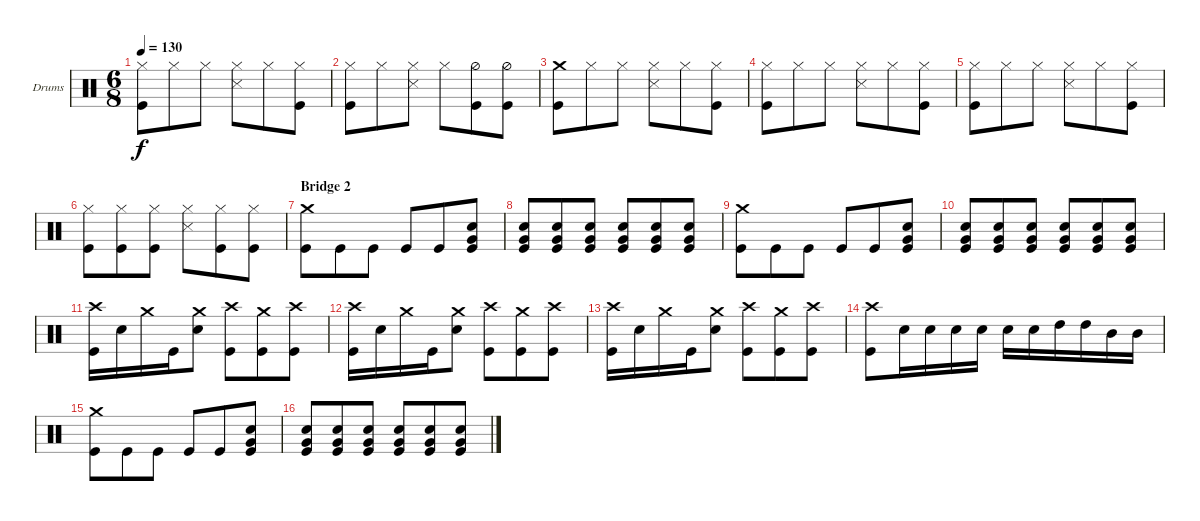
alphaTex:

\bracketExtendMode groupsimilarinstruments
\firstSystemTrackNameOrientation horizontal
\otherSystemsTrackNameOrientation horizontal
\track ("drums (Anton Zulganov)" "Drums") {instrument percussion}
\staff {score}
\articulation defaults
\ts (6 8)
\tempo 130
\clef neutral
\ks aminor
("Kick (hit)" "Hi-Hat (closed)").8{dy f} "Hi-Hat (closed)".8 "Hi-Hat (closed)".8 ("Snare (side stick) 3" "Hi-Hat (closed)").8 "Hi-Hat (closed)".8 ("Kick (hit)" "Hi-Hat (closed)").8 |
("Kick (hit)" "Hi-Hat (closed)").8 "Hi-Hat (closed)".8 ("Snare (side stick) 3" "Hi-Hat (closed)").8 "Hi-Hat (closed)".8 ("Kick (hit)" "Hi-Hat (half)").8 ("Kick (hit)" "Hi-Hat (half)").8 |
("Kick (hit)" "Crash medium (hit)").8 "Hi-Hat (closed)".8 "Hi-Hat (closed)".8 ("Snare (side stick) 3" "Hi-Hat (closed)").8 "Hi-Hat (closed)".8 ("Kick (hit)" "Hi-Hat (closed)").8 |
("Kick (hit)" "Hi-Hat (closed)").8 "Hi-Hat (closed)".8 "Hi-Hat (closed)".8 ("Snare (side stick) 3" "Hi-Hat (closed)").8 "Hi-Hat (closed)".8 ("Kick (hit)" "Hi-Hat (closed)").8 |
("Kick (hit)" "Hi-Hat (closed)").8 "Hi-Hat (closed)".8 "Hi-Hat (closed)".8 ("Snare (side stick) 3" "Hi-Hat (closed)").8 "Hi-Hat (closed)".8 ("Kick (hit)" "Hi-Hat (closed)").8 |
("Kick (hit)" "Hi-Hat (closed)").8 ("Kick (hit)" "Hi-Hat (closed)").8 ("Kick (hit)" "Hi-Hat (closed)").8 ("Snare (side stick) 3" "Hi-Hat (closed)").8 ("Kick (hit)" "Hi-Hat (closed)").8 ("Kick (hit)" "Hi-Hat (closed)").8 |
\section ("" "Bridge 2")
("Crash medium (hit)" "Kick (hit)").8 "Kick (hit)".8 "Kick (hit)".8 "Kick (hit)".8 "Kick (hit)".8 ("Snare (hit) 2" "Kick (hit)" "Very Low Tom (hit)").8 |
("Snare (hit) 2" "Kick (hit)" "Very Low Tom (hit)").8 ("Snare (hit) 2" "Kick (hit)" "Very Low Tom (hit)").8 ("Snare (hit) 2" "Kick (hit)" "Very Low Tom (hit)").8 ("Snare (hit) 2" "Kick (hit)" "Very Low Tom (hit)").8 ("Snare (hit) 2" "Kick (hit)" "Very Low Tom (hit)").8 ("Snare (hit) 2" "Kick (hit)" "Very Low Tom (hit)").8 |
("Crash medium (hit)" "Kick (hit)").8 "Kick (hit)".8 "Kick (hit)".8 "Kick (hit)".8 "Kick (hit)".8 ("Snare (hit) 2" "Kick (hit)" "Very Low Tom (hit)").8 |
("Snare (hit) 2" "Kick (hit)" "Very Low Tom (hit)").8 ("Snare (hit) 2" "Kick (hit)" "Very Low Tom (hit)").8 ("Snare (hit) 2" "Kick (hit)" "Very Low Tom (hit)").8 ("Snare (hit) 2" "Kick (hit)" "Very Low Tom (hit)").8 ("Snare (hit) 2" "Kick (hit)" "Very Low Tom (hit)").8 ("Snare (hit) 2" "Kick (hit)" "Very Low Tom (hit)").8 |
("Kick (hit)" "Crash high (hit)").16 "Snare (hit) 2".16 "Crash medium (hit)".16 "Kick (hit)".16 ("Snare (hit) 2" "Crash medium (hit)").8 ("Kick (hit)" "Crash high (hit)").8 ("Kick (hit)" "Crash medium (hit)").8 ("Kick (hit)" "Crash high (hit)").8 |
("Kick (hit)" "Crash high (hit)").16 "Snare (hit) 2".16 "Crash medium (hit)".16 "Kick (hit)".16 ("Snare (hit) 2" "Crash medium (hit)").8 ("Kick (hit)" "Crash high (hit)").8 ("Kick (hit)" "Crash medium (hit)").8 ("Kick (hit)" "Crash high (hit)").8 |
("Kick (hit)" "Crash high (hit)").16 "Snare (hit) 2".16 "Crash medium (hit)".16 "Kick (hit)".16 ("Snare (hit) 2" "Crash medium (hit)").8 ("Kick (hit)" "Crash high (hit)").8 ("Kick (hit)" "Crash medium (hit)").8 ("Kick (hit)" "Crash high (hit)").8 |
("Kick (hit)" "Crash high (hit)").8 "Snare (hit) 2".16 "Snare (hit) 2".16 "Snare (hit) 2".16 "Snare (hit) 2".16 "Snare (hit) 2".16 "Snare (hit) 2".16 "High Tom (hit)".16 "High Tom (hit)".16 "Mid Tom (hit)".16 "Mid Tom (hit)".16 |
("Crash medium (hit)" "Kick (hit)").8 "Kick (hit)".8 "Kick (hit)".8 "Kick (hit)".8 "Kick (hit)".8 ("Snare (hit) 2" "Kick (hit)" "Very Low Tom (hit)").8 |
("Snare (hit) 2" "Kick (hit)" "Very Low Tom (hit)").8 ("Snare (hit) 2" "Kick (hit)" "Very Low Tom (hit)").8 ("Snare (hit) 2" "Kick (hit)" "Very Low Tom (hit)").8 ("Snare (hit) 2" "Kick (hit)" "Very Low Tom (hit)").8 ("Snare (hit) 2" "Kick (hit)" "Very Low Tom (hit)").8 ("Snare (hit) 2" "Kick (hit)" "Very Low Tom (hit)").8
